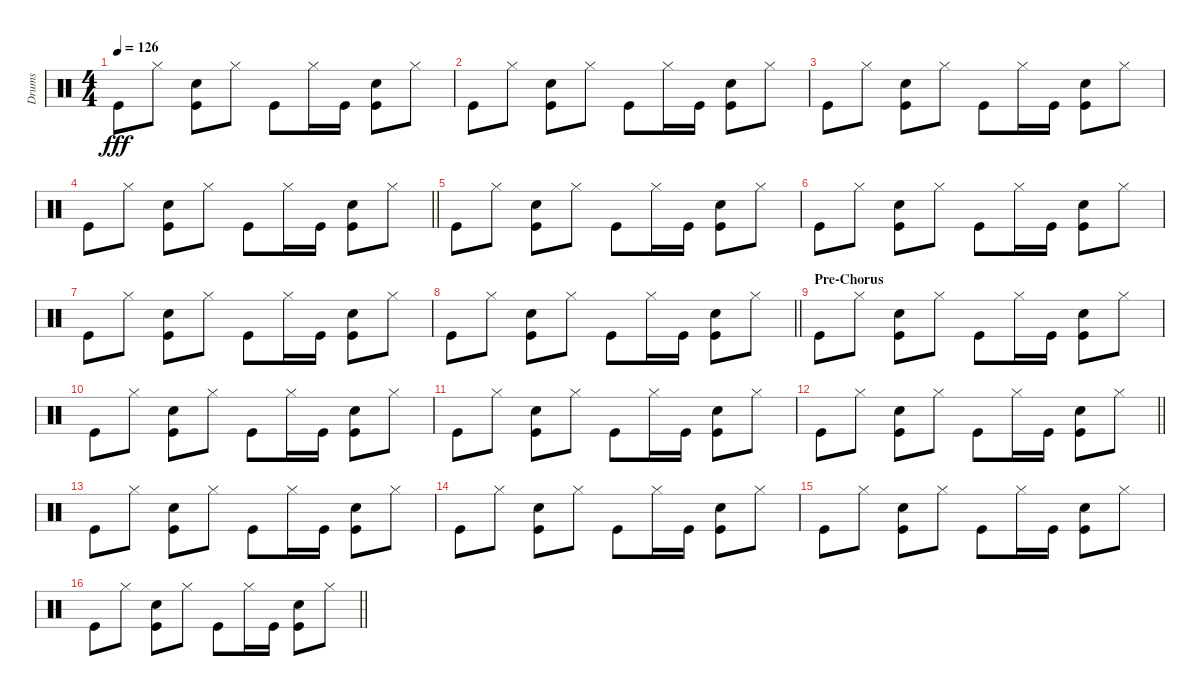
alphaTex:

\track ("Drums" "Drums") {instrument percussion}
\staff {score}
\articulation defaults
\ts (4 4)
\tempo 126
\clef neutral
\ks c "Kick (hit)".8{dy fff} "Hi-Hat (closed)".8
("Hand Clap (hit)" "Kick (hit)").8 "Hi-Hat (closed)".8 "Kick (hit)".8 "Hi-Hat (closed)".16 "Kick (hit)".16 ("Hand Clap (hit)" "Kick (hit)").8 "Hi-Hat (closed)".8 |
"Kick (hit)".8 "Hi-Hat (closed)".8 ("Hand Clap (hit)" "Kick (hit)").8 "Hi-Hat (closed)".8 "Kick (hit)".8 "Hi-Hat (closed)".16 "Kick (hit)".16 ("Hand Clap (hit)" "Kick (hit)").8 "Hi-Hat (closed)".8 |
"Kick (hit)".8 "Hi-Hat (closed)".8 ("Hand Clap (hit)" "Kick (hit)").8 "Hi-Hat (closed)".8 "Kick (hit)".8 "Hi-Hat (closed)".16 "Kick (hit)".16 ("Hand Clap (hit)" "Kick (hit)").8 "Hi-Hat (closed)".8 |
\barLineRight lightlight "Kick (hit)".8 "Hi-Hat (closed)".8
("Hand Clap (hit)" "Kick (hit)").8 "Hi-Hat (closed)".8 "Kick (hit)".8 "Hi-Hat (closed)".16 "Kick (hit)".16 ("Hand Clap (hit)" "Kick (hit)").8 "Hi-Hat (closed)".8 |
"Kick (hit)".8 "Hi-Hat (closed)".8 ("Hand Clap (hit)" "Kick (hit)").8 "Hi-Hat (closed)".8 "Kick (hit)".8 "Hi-Hat (closed)".16 "Kick (hit)".16 ("Hand Clap (hit)" "Kick (hit)").8 "Hi-Hat (closed)".8 |
"Kick (hit)".8 "Hi-Hat (closed)".8 ("Hand Clap (hit)" "Kick (hit)").8 "Hi-Hat (closed)".8 "Kick (hit)".8 "Hi-Hat (closed)".16 "Kick (hit)".16 ("Hand Clap (hit)" "Kick (hit)").8 "Hi-Hat (closed)".8 |
"Kick (hit)".8 "Hi-Hat (closed)".8 ("Hand Clap (hit)" "Kick (hit)").8 "Hi-Hat (closed)".8 "Kick (hit)".8 "Hi-Hat (closed)".16 "Kick (hit)".16 ("Hand Clap (hit)" "Kick (hit)").8 "Hi-Hat (closed)".8 |
\barLineRight lightlight "Kick (hit)".8 "Hi-Hat (closed)".8
("Hand Clap (hit)" "Kick (hit)").8 "Hi-Hat (closed)".8 "Kick (hit)".8 "Hi-Hat (closed)".16 "Kick (hit)".16 ("Hand Clap (hit)" "Kick (hit)").8 "Hi-Hat (closed)".8 |
\section ("" "Pre-Chorus")
"Kick (hit)".8 "Hi-Hat (closed)".8 ("Hand Clap (hit)" "Kick (hit)").8 "Hi-Hat (closed)".8 "Kick (hit)".8 "Hi-Hat (closed)".16 "Kick (hit)".16 ("Hand Clap (hit)" "Kick (hit)").8 "Hi-Hat (closed)".8 |
"Kick (hit)".8 "Hi-Hat (closed)".8 ("Hand Clap (hit)" "Kick (hit)").8 "Hi-Hat (closed)".8 "Kick (hit)".8 "Hi-Hat (closed)".16 "Kick (hit)".16 ("Hand Clap (hit)" "Kick (hit)").8 "Hi-Hat (closed)".8 |
"Kick (hit)".8 "Hi-Hat (closed)".8 ("Hand Clap (hit)" "Kick (hit)").8 "Hi-Hat (closed)".8 "Kick (hit)".8 "Hi-Hat (closed)".16 "Kick (hit)".16 ("Hand Clap (hit)" "Kick (hit)").8 "Hi-Hat (closed)".8 |
\barLineRight lightlight "Kick (hit)".8 "Hi-Hat (closed)".8
("Hand Clap (hit)" "Kick (hit)").8 "Hi-Hat (closed)".8 "Kick (hit)".8 "Hi-Hat (closed)".16 "Kick (hit)".16 ("Hand Clap (hit)" "Kick (hit)").8 "Hi-Hat (closed)".8 |
"Kick (hit)".8 "Hi-Hat (closed)".8 ("Hand Clap (hit)" "Kick (hit)").8 "Hi-Hat (closed)".8 "Kick (hit)".8 "Hi-Hat (closed)".16 "Kick (hit)".16 ("Hand Clap (hit)" "Kick (hit)").8 "Hi-Hat (closed)".8 |
"Kick (hit)".8 "Hi-Hat (closed)".8 ("Hand Clap (hit)" "Kick (hit)").8 "Hi-Hat (closed)".8 "Kick (hit)".8 "Hi-Hat (closed)".16 "Kick (hit)".16 ("Hand Clap (hit)" "Kick (hit)").8 "Hi-Hat (closed)".8 |
"Kick (hit)".8 "Hi-Hat (closed)".8 ("Hand Clap (hit)" "Kick (hit)").8 "Hi-Hat (closed)".8 "Kick (hit)".8 "Hi-Hat (closed)".16 "Kick (hit)".16 ("Hand Clap (hit)" "Kick (hit)").8 "Hi-Hat (closed)".8 |
\barLineRight lightlight "Kick (hit)".8 "Hi-Hat (closed)".8
("Hand Clap (hit)" "Kick (hit)").8 "Hi-Hat (closed)".8 "Kick (hit)".8 "Hi-Hat (closed)".16 "Kick (hit)".16 ("Hand Clap (hit)" "Kick (hit)").8 "Hi-Hat (closed)".8
